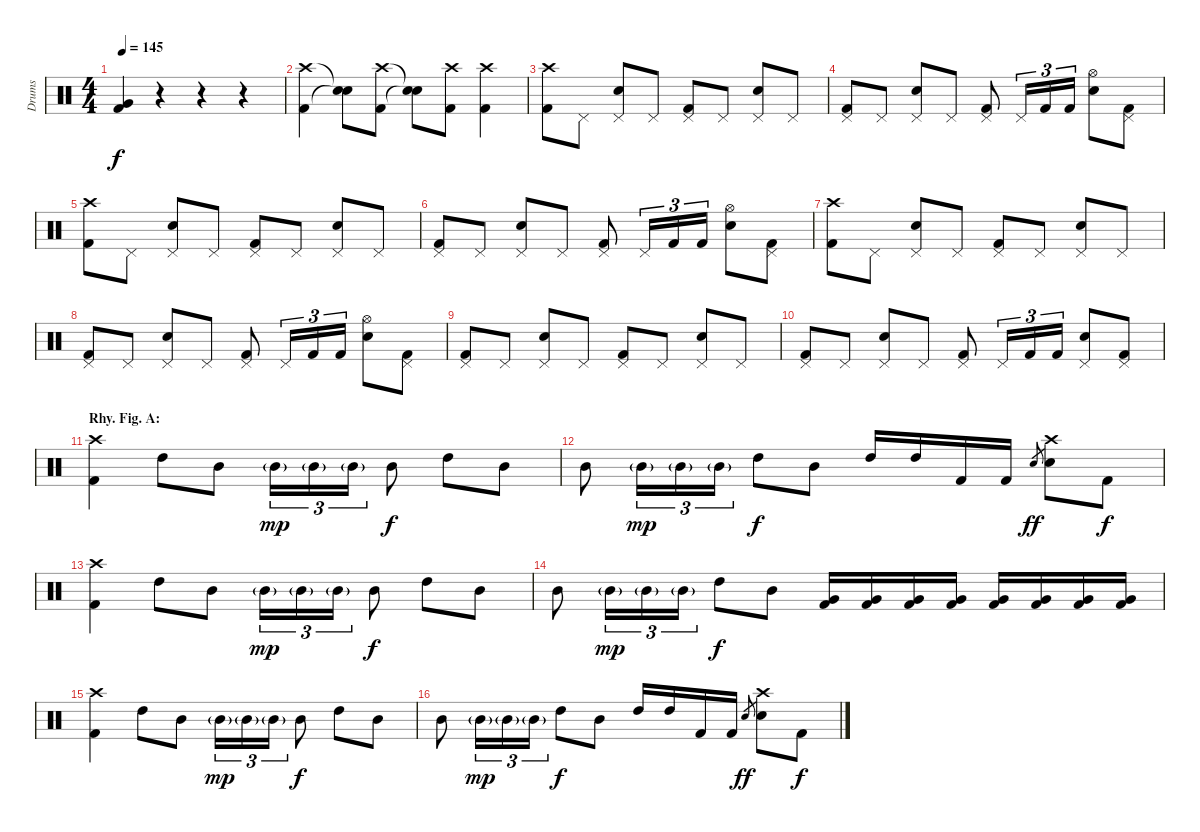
\track ("Drums" "Drums") {instrument percussion}
\staff {score}
\articulation defaults
\ts (4 4)
\tempo 145
\clef neutral
\ks c
("Very Low Tom (hit)" "Kick (hit) 2").4{dy f} r.4 r.4 r.4 |
("Crash high (hit)" "Kick (hit) 2").4 ("Snare (hit)"{t} "Snare (hit)"{t}).8 ("Crash high (hit)" "Kick (hit) 2").8 ("Snare (hit)"{t} "Snare (hit)"{t}).8 ("Crash high (hit)" "Kick (hit) 2").8 ("Crash high (hit)" "Kick (hit) 2").4 |
("Crash high (hit)" "Kick (hit) 2").8 "Pedal Hi-Hat (hit)".8 ("Pedal Hi-Hat (hit)" "Electric Snare (hit)").8 "Pedal Hi-Hat (hit)".8 ("Pedal Hi-Hat (hit)" "Kick (hit) 2").8 "Pedal Hi-Hat (hit)".8 ("Pedal Hi-Hat (hit)" "Electric Snare (hit)").8 "Pedal Hi-Hat (hit)".8 |
("Pedal Hi-Hat (hit)" "Kick (hit) 2").8 "Pedal Hi-Hat (hit)".8 ("Pedal Hi-Hat (hit)" "Electric Snare (hit)").8 "Pedal Hi-Hat (hit)".8 ("Pedal Hi-Hat (hit)" "Kick (hit) 2").8 "Pedal Hi-Hat (hit)".16{tu (3 2)} "Kick (hit) 2".16{tu (3 2)} "Kick (hit) 2".16{tu (3 2)} ("Hi-Hat (open)" "Electric Snare (hit)").8 ("Pedal Hi-Hat (hit)" "Kick (hit) 2").8 |
("Crash high (hit)" "Kick (hit) 2").8 "Pedal Hi-Hat (hit)".8 ("Pedal Hi-Hat (hit)" "Electric Snare (hit)").8 "Pedal Hi-Hat (hit)".8 ("Pedal Hi-Hat (hit)" "Kick (hit) 2").8 "Pedal Hi-Hat (hit)".8 ("Pedal Hi-Hat (hit)" "Electric Snare (hit)").8 "Pedal Hi-Hat (hit)".8 |
("Pedal Hi-Hat (hit)" "Kick (hit) 2").8 "Pedal Hi-Hat (hit)".8 ("Pedal Hi-Hat (hit)" "Electric Snare (hit)").8 "Pedal Hi-Hat (hit)".8 ("Pedal Hi-Hat (hit)" "Kick (hit) 2").8 "Pedal Hi-Hat (hit)".16{tu (3 2)} "Kick (hit) 2".16{tu (3 2)} "Kick (hit) 2".16{tu (3 2)} ("Hi-Hat (open)" "Electric Snare (hit)").8 ("Pedal Hi-Hat (hit)" "Kick (hit) 2").8 |
("Crash high (hit)" "Kick (hit) 2").8 "Pedal Hi-Hat (hit)".8 ("Pedal Hi-Hat (hit)" "Electric Snare (hit)").8 "Pedal Hi-Hat (hit)".8 ("Pedal Hi-Hat (hit)" "Kick (hit) 2").8 "Pedal Hi-Hat (hit)".8 ("Pedal Hi-Hat (hit)" "Electric Snare (hit)").8 "Pedal Hi-Hat (hit)".8 |
("Pedal Hi-Hat (hit)" "Kick (hit) 2").8 "Pedal Hi-Hat (hit)".8 ("Pedal Hi-Hat (hit)" "Electric Snare (hit)").8 "Pedal Hi-Hat (hit)".8 ("Pedal Hi-Hat (hit)" "Kick (hit) 2").8 "Pedal Hi-Hat (hit)".16{tu (3 2)} "Kick (hit) 2".16{tu (3 2)} "Kick (hit) 2".16{tu (3 2)} ("Hi-Hat (open)" "Electric Snare (hit)").8 ("Pedal Hi-Hat (hit)" "Kick (hit) 2").8 |
("Pedal Hi-Hat (hit)" "Kick (hit) 2").8 "Pedal Hi-Hat (hit)".8 ("Pedal Hi-Hat (hit)" "Electric Snare (hit)").8 "Pedal Hi-Hat (hit)".8 ("Pedal Hi-Hat (hit)" "Kick (hit) 2").8 "Pedal Hi-Hat (hit)".8 ("Pedal Hi-Hat (hit)" "Electric Snare (hit)").8 "Pedal Hi-Hat (hit)".8 |
("Pedal Hi-Hat (hit)" "Kick (hit) 2").8 "Pedal Hi-Hat (hit)".8 ("Pedal Hi-Hat (hit)" "Electric Snare (hit)").8 "Pedal Hi-Hat (hit)".8 ("Pedal Hi-Hat (hit)" "Kick (hit) 2").8 "Pedal Hi-Hat (hit)".16{tu (3 2)} "Kick (hit) 2".16{tu (3 2)} "Kick (hit) 2".16{tu (3 2)} ("Pedal Hi-Hat (hit)" "Electric Snare (hit)").8 ("Pedal Hi-Hat (hit)" "Kick (hit) 2").8 |
\section ("" "Rhy. Fig. A:")
("Crash high (hit)" "Kick (hit) 2").4 "High Tom (hit)".8 "Mid Tom (hit)".8 "Mid Tom (hit)"{g}.16{tu (3 2) dy mp} "Mid Tom (hit)"{g}.16{tu (3 2)} "Mid Tom (hit)"{g}.16{tu (3 2)} "Mid Tom (hit)".8{dy f} "High Tom (hit)".8 "Mid Tom (hit)".8 |
"Mid Tom (hit)".8 "Mid Tom (hit)"{g}.16{tu (3 2) dy mp} "Mid Tom (hit)"{g}.16{tu (3 2)} "Mid Tom (hit)"{g}.16{tu (3 2)} "High Tom (hit)".8{dy f} "Mid Tom (hit)".8 "High Tom (hit)".16 "High Tom (hit)".16 "Kick (hit) 2".16 "Kick (hit) 2".16 "Electric Snare (hit)".8{gr dy ff} ("Crash high (hit)" "Electric Snare (hit)").8 "Kick (hit) 2".8{dy f} |
("Crash high (hit)" "Kick (hit) 2").4 "High Tom (hit)".8 "Mid Tom (hit)".8 "Mid Tom (hit)"{g}.16{tu (3 2) dy mp} "Mid Tom (hit)"{g}.16{tu (3 2)} "Mid Tom (hit)"{g}.16{tu (3 2)} "Mid Tom (hit)".8{dy f} "High Tom (hit)".8 "Mid Tom (hit)".8 |
"Mid Tom (hit)".8 "Mid Tom (hit)"{g}.16{tu (3 2) dy mp} "Mid Tom (hit)"{g}.16{tu (3 2)} "Mid Tom (hit)"{g}.16{tu (3 2)} "High Tom (hit)".8{dy f} "Mid Tom (hit)".8 ("Very Low Tom (hit)" "Kick (hit) 2").16 ("Very Low Tom (hit)" "Kick (hit) 2").16 ("Very Low Tom (hit)" "Kick (hit) 2").16 ("Very Low Tom (hit)" "Kick (hit) 2").16 ("Very Low Tom (hit)" "Kick (hit) 2").16 ("Very Low Tom (hit)" "Kick (hit) 2").16 ("Very Low Tom (hit)" "Kick (hit) 2").16 ("Very Low Tom (hit)" "Kick (hit) 2").16 |
("Crash high (hit)" "Kick (hit) 2").4 "High Tom (hit)".8 "Mid Tom (hit)".8 "Mid Tom (hit)"{g}.16{tu (3 2) dy mp} "Mid Tom (hit)"{g}.16{tu (3 2)} "Mid Tom (hit)"{g}.16{tu (3 2)} "Mid Tom (hit)".8{dy f} "High Tom (hit)".8 "Mid Tom (hit)".8 |
"Mid Tom (hit)".8 "Mid Tom (hit)"{g}.16{tu (3 2) dy mp} "Mid Tom (hit)"{g}.16{tu (3 2)} "Mid Tom (hit)"{g}.16{tu (3 2)} "High Tom (hit)".8{dy f} "Mid Tom (hit)".8 "High Tom (hit)".16 "High Tom (hit)".16 "Kick (hit) 2".16 "Kick (hit) 2".16 "Electric Snare (hit)".8{gr dy ff} ("Crash high (hit)" "Electric Snare (hit)").8 "Kick (hit) 2".8{dy f}
